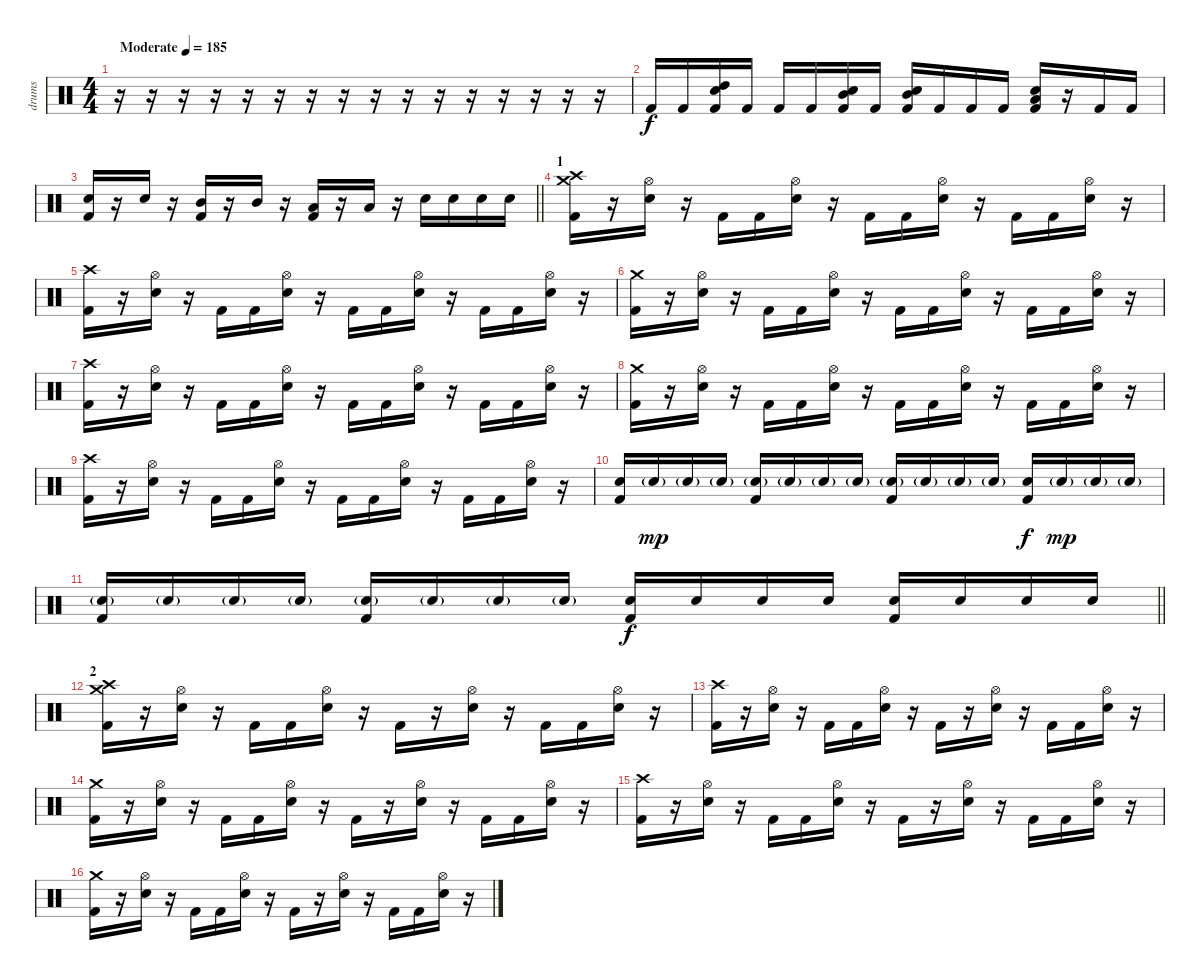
\track ("drums" "drums") {instrument percussion}
\staff {score}
\articulation defaults
\ts (4 4)
\tempo (185 "Moderate")
\clef neutral
\ks c
r.16{dy f} r.16 r.16 r.16 r.16 r.16 r.16 r.16 r.16 r.16 r.16 r.16 r.16 r.16 r.16 r.16 |
"Kick (hit) 2".16 "Kick (hit) 2".16 ("High Tom (hit)" "Electric Snare (hit)" "Kick (hit) 2").16 "Kick (hit) 2".16 "Kick (hit) 2".16 "Kick (hit) 2".16 ("Mid Tom (hit)" "Electric Snare (hit)" "Kick (hit) 2").16 "Kick (hit) 2".16 ("Mid Tom (hit)" "Electric Snare (hit)" "Kick (hit) 2").16 "Kick (hit) 2".16 "Kick (hit) 2".16 "Kick (hit) 2".16 ("Low Floor Tom (hit)" "Electric Snare (hit)" "Kick (hit) 2").16 r.16 "Kick (hit) 2".16 "Kick (hit) 2".16 |
\barLineRight lightlight
("Electric Snare (hit)" "Kick (hit) 2").16 r.16 "Electric Snare (hit)".16 r.16 ("Mid Tom (hit)" "Kick (hit) 2").16 r.16 "Mid Tom (hit)".16 r.16 ("Low Floor Tom (hit)" "Kick (hit) 2").16 r.16 "Low Floor Tom (hit)".16 r.16 "Electric Snare (hit)".16 "Electric Snare (hit)".16 "Electric Snare (hit)".16 "Electric Snare (hit)".16 |
\section ("" "1")
("Crash medium (hit)" "Crash high (hit)" "Kick (hit) 2").16 r.16 ("Hi-Hat (open)" "Electric Snare (hit)").16 r.16 "Kick (hit) 2".16 "Kick (hit) 2".16 ("Hi-Hat (open)" "Electric Snare (hit)").16 r.16 "Kick (hit) 2".16 "Kick (hit) 2".16 ("Hi-Hat (open)" "Electric Snare (hit)").16 r.16 "Kick (hit) 2".16 "Kick (hit) 2".16 ("Hi-Hat (open)" "Electric Snare (hit)").16 r.16 |
("Crash high (hit)" "Kick (hit) 2").16 r.16 ("Hi-Hat (open)" "Electric Snare (hit)").16 r.16 "Kick (hit) 2".16 "Kick (hit) 2".16 ("Hi-Hat (open)" "Electric Snare (hit)").16 r.16 "Kick (hit) 2".16 "Kick (hit) 2".16 ("Hi-Hat (open)" "Electric Snare (hit)").16 r.16 "Kick (hit) 2".16 "Kick (hit) 2".16 ("Hi-Hat (open)" "Electric Snare (hit)").16 r.16 |
("Crash medium (hit)" "Kick (hit) 2").16 r.16 ("Hi-Hat (open)" "Electric Snare (hit)").16 r.16 "Kick (hit) 2".16 "Kick (hit) 2".16 ("Hi-Hat (open)" "Electric Snare (hit)").16 r.16 "Kick (hit) 2".16 "Kick (hit) 2".16 ("Hi-Hat (open)" "Electric Snare (hit)").16 r.16 "Kick (hit) 2".16 "Kick (hit) 2".16 ("Hi-Hat (open)" "Electric Snare (hit)").16 r.16 |
("Crash high (hit)" "Kick (hit) 2").16 r.16 ("Hi-Hat (open)" "Electric Snare (hit)").16 r.16 "Kick (hit) 2".16 "Kick (hit) 2".16 ("Hi-Hat (open)" "Electric Snare (hit)").16 r.16 "Kick (hit) 2".16 "Kick (hit) 2".16 ("Hi-Hat (open)" "Electric Snare (hit)").16 r.16 "Kick (hit) 2".16 "Kick (hit) 2".16 ("Hi-Hat (open)" "Electric Snare (hit)").16 r.16 |
("Crash medium (hit)" "Kick (hit) 2").16 r.16 ("Hi-Hat (open)" "Electric Snare (hit)").16 r.16 "Kick (hit) 2".16 "Kick (hit) 2".16 ("Hi-Hat (open)" "Electric Snare (hit)").16 r.16 "Kick (hit) 2".16 "Kick (hit) 2".16 ("Hi-Hat (open)" "Electric Snare (hit)").16 r.16 "Kick (hit) 2".16 "Kick (hit) 2".16 ("Hi-Hat (open)" "Electric Snare (hit)").16 r.16 |
("Crash high (hit)" "Kick (hit) 2").16 r.16 ("Hi-Hat (open)" "Electric Snare (hit)").16 r.16 "Kick (hit) 2".16 "Kick (hit) 2".16 ("Hi-Hat (open)" "Electric Snare (hit)").16 r.16 "Kick (hit) 2".16 "Kick (hit) 2".16 ("Hi-Hat (open)" "Electric Snare (hit)").16 r.16 "Kick (hit) 2".16 "Kick (hit) 2".16 ("Hi-Hat (open)" "Electric Snare (hit)").16 r.16 |
("Electric Snare (hit)" "Kick (hit) 2").16 "Electric Snare (hit)"{g}.16{dy mp} "Electric Snare (hit)"{g}.16 "Electric Snare (hit)"{g}.16 ("Electric Snare (hit)"{g} "Kick (hit) 2").16 "Electric Snare (hit)"{g}.16 "Electric Snare (hit)"{g}.16 "Electric Snare (hit)"{g}.16 ("Electric Snare (hit)"{g} "Kick (hit) 2").16 "Electric Snare (hit)"{g}.16 "Electric Snare (hit)"{g}.16 "Electric Snare (hit)"{g}.16 ("Electric Snare (hit)" "Kick (hit) 2").16{dy f} "Electric Snare (hit)"{g}.16{dy mp} "Electric Snare (hit)"{g}.16 "Electric Snare (hit)"{g}.16 |
\barLineRight lightlight
("Electric Snare (hit)"{g} "Kick (hit) 2").16 "Electric Snare (hit)"{g}.16 "Electric Snare (hit)"{g}.16 "Electric Snare (hit)"{g}.16 ("Electric Snare (hit)"{g} "Kick (hit) 2").16 "Electric Snare (hit)"{g}.16 "Electric Snare (hit)"{g}.16 "Electric Snare (hit)"{g}.16 ("Electric Snare (hit)" "Kick (hit) 2").16{dy f} "Electric Snare (hit)".16 "Electric Snare (hit)".16 "Electric Snare (hit)".16 ("Electric Snare (hit)" "Kick (hit) 2").16 "Electric Snare (hit)".16 "Electric Snare (hit)".16 "Electric Snare (hit)".16 |
\section ("" "2")
("Crash medium (hit)" "Crash high (hit)" "Kick (hit) 2").16 r.16 ("Hi-Hat (open)" "Electric Snare (hit)").16 r.16 "Kick (hit) 2".16 "Kick (hit) 2".16 ("Hi-Hat (open)" "Electric Snare (hit)").16 r.16 "Kick (hit) 2".16 r.16 ("Hi-Hat (open)" "Electric Snare (hit)").16 r.16 "Kick (hit) 2".16 "Kick (hit) 2".16 ("Hi-Hat (open)" "Electric Snare (hit)").16 r.16 |
("Crash high (hit)" "Kick (hit) 2").16 r.16 ("Hi-Hat (open)" "Electric Snare (hit)").16 r.16 "Kick (hit) 2".16 "Kick (hit) 2".16 ("Hi-Hat (open)" "Electric Snare (hit)").16 r.16 "Kick (hit) 2".16 r.16 ("Hi-Hat (open)" "Electric Snare (hit)").16 r.16 "Kick (hit) 2".16 "Kick (hit) 2".16 ("Hi-Hat (open)" "Electric Snare (hit)").16 r.16 |
("Crash medium (hit)" "Kick (hit) 2").16 r.16 ("Hi-Hat (open)" "Electric Snare (hit)").16 r.16 "Kick (hit) 2".16 "Kick (hit) 2".16 ("Hi-Hat (open)" "Electric Snare (hit)").16 r.16 "Kick (hit) 2".16 r.16 ("Hi-Hat (open)" "Electric Snare (hit)").16 r.16 "Kick (hit) 2".16 "Kick (hit) 2".16 ("Hi-Hat (open)" "Electric Snare (hit)").16 r.16 |
("Crash high (hit)" "Kick (hit) 2").16 r.16 ("Hi-Hat (open)" "Electric Snare (hit)").16 r.16 "Kick (hit) 2".16 "Kick (hit) 2".16 ("Hi-Hat (open)" "Electric Snare (hit)").16 r.16 "Kick (hit) 2".16 r.16 ("Hi-Hat (open)" "Electric Snare (hit)").16 r.16 "Kick (hit) 2".16 "Kick (hit) 2".16 ("Hi-Hat (open)" "Electric Snare (hit)").16 r.16 |
("Crash medium (hit)" "Kick (hit) 2").16 r.16 ("Hi-Hat (open)" "Electric Snare (hit)").16 r.16 "Kick (hit) 2".16 "Kick (hit) 2".16 ("Hi-Hat (open)" "Electric Snare (hit)").16 r.16 "Kick (hit) 2".16 r.16 ("Hi-Hat (open)" "Electric Snare (hit)").16 r.16 "Kick (hit) 2".16 "Kick (hit) 2".16 ("Hi-Hat (open)" "Electric Snare (hit)").16 r.16
